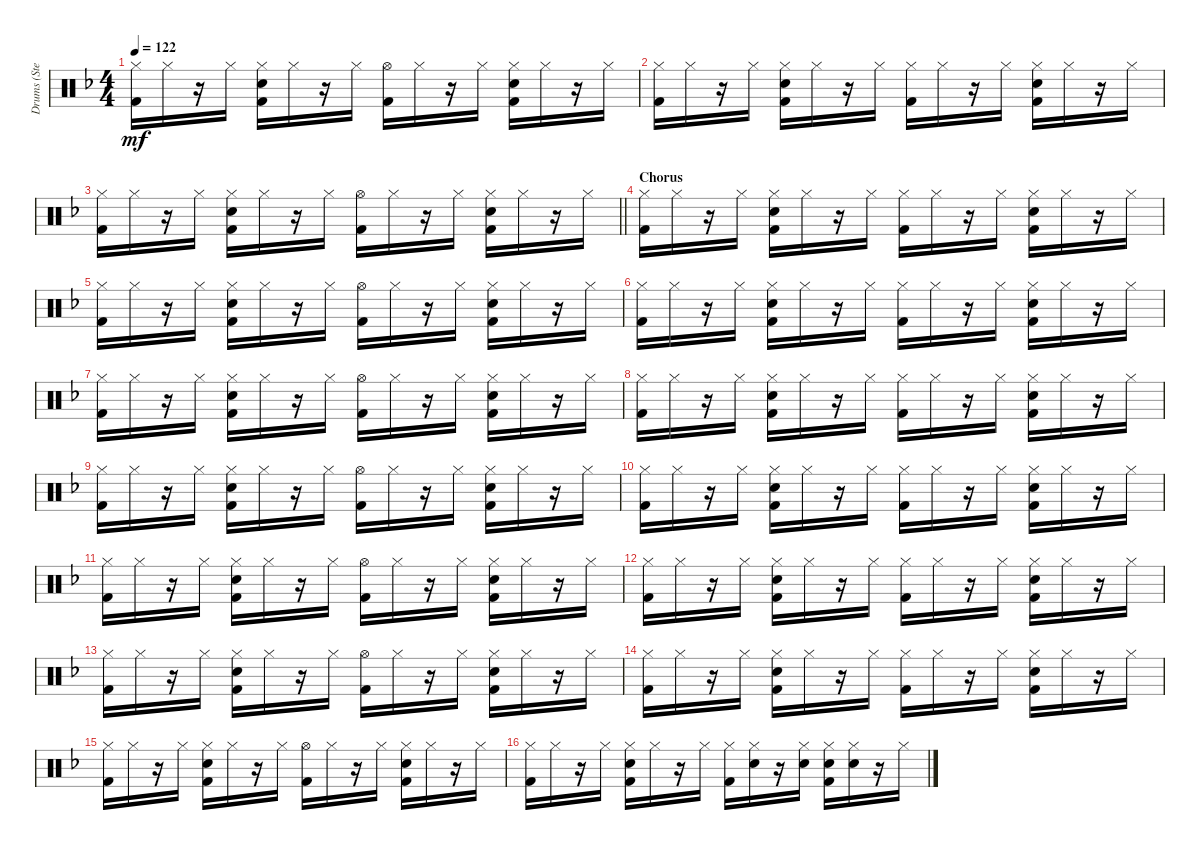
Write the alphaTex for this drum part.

\track ("Drums (Stephen Morris)" "Drums (Ste") {instrument percussion}
\staff {score}
\articulation defaults
\ts (4 4)
\tempo 122
\clef neutral
\ks f
("Hi-Hat (closed)" "Kick (hit) 2").16{dy mf} "Hi-Hat (closed)".16 r.16 "Hi-Hat (closed)".16 ("Hi-Hat (closed)" "Snare (hit) 2" "Kick (hit) 2").16 "Hi-Hat (closed)".16 r.16 "Hi-Hat (closed)".16 ("Kick (hit) 2" "Hi-Hat (open)").16 "Hi-Hat (closed)".16 r.16 "Hi-Hat (closed)".16 ("Hi-Hat (closed)" "Kick (hit) 2" "Snare (hit) 2").16 "Hi-Hat (closed)".16 r.16 "Hi-Hat (closed)".16 |
("Kick (hit) 2" "Hi-Hat (closed)").16 "Hi-Hat (closed)".16 r.16 "Hi-Hat (closed)".16 ("Hi-Hat (closed)" "Snare (hit) 2" "Kick (hit) 2").16 "Hi-Hat (closed)".16 r.16 "Hi-Hat (closed)".16 ("Kick (hit) 2" "Hi-Hat (closed)").16 "Hi-Hat (closed)".16 r.16 "Hi-Hat (closed)".16 ("Snare (hit) 2" "Kick (hit) 2" "Hi-Hat (closed)").16 "Hi-Hat (closed)".16 r.16 "Hi-Hat (closed)".16 |
\barLineRight lightlight
("Kick (hit) 2" "Hi-Hat (closed)").16 "Hi-Hat (closed)".16 r.16 "Hi-Hat (closed)".16 ("Hi-Hat (closed)" "Snare (hit) 2" "Kick (hit) 2").16 "Hi-Hat (closed)".16 r.16 "Hi-Hat (closed)".16 ("Kick (hit) 2" "Hi-Hat (open)").16 "Hi-Hat (closed)".16 r.16 "Hi-Hat (closed)".16 ("Hi-Hat (closed)" "Snare (hit) 2" "Kick (hit) 2").16 "Hi-Hat (closed)".16 r.16 "Hi-Hat (closed)".16 |
\section ("" "Chorus")
("Kick (hit) 2" "Hi-Hat (closed)").16 "Hi-Hat (closed)".16 r.16 "Hi-Hat (closed)".16 ("Hi-Hat (closed)" "Kick (hit) 2" "Snare (hit) 2").16 "Hi-Hat (closed)".16 r.16 "Hi-Hat (closed)".16 ("Kick (hit) 2" "Hi-Hat (closed)").16 "Hi-Hat (closed)".16 r.16 "Hi-Hat (closed)".16 ("Hi-Hat (closed)" "Snare (hit) 2" "Kick (hit) 2").16 "Hi-Hat (closed)".16 r.16 "Hi-Hat (closed)".16 |
("Hi-Hat (closed)" "Kick (hit) 2").16 "Hi-Hat (closed)".16 r.16 "Hi-Hat (closed)".16 ("Hi-Hat (closed)" "Kick (hit) 2" "Snare (hit) 2").16 "Hi-Hat (closed)".16 r.16 "Hi-Hat (closed)".16 ("Kick (hit) 2" "Hi-Hat (open)").16 "Hi-Hat (closed)".16 r.16 "Hi-Hat (closed)".16 ("Hi-Hat (closed)" "Snare (hit) 2" "Kick (hit) 2").16 "Hi-Hat (closed)".16 r.16 "Hi-Hat (closed)".16 |
("Kick (hit) 2" "Hi-Hat (closed)").16 "Hi-Hat (closed)".16 r.16 "Hi-Hat (closed)".16 ("Hi-Hat (closed)" "Snare (hit) 2" "Kick (hit) 2").16 "Hi-Hat (closed)".16 r.16 "Hi-Hat (closed)".16 ("Kick (hit) 2" "Hi-Hat (closed)").16 "Hi-Hat (closed)".16 r.16 "Hi-Hat (closed)".16 ("Kick (hit) 2" "Snare (hit) 2" "Hi-Hat (closed)").16 "Hi-Hat (closed)".16 r.16 "Hi-Hat (closed)".16 |
("Kick (hit) 2" "Hi-Hat (closed)").16 "Hi-Hat (closed)".16 r.16 "Hi-Hat (closed)".16 ("Hi-Hat (closed)" "Snare (hit) 2" "Kick (hit) 2").16 "Hi-Hat (closed)".16 r.16 "Hi-Hat (closed)".16 ("Kick (hit) 2" "Hi-Hat (open)").16 "Hi-Hat (closed)".16 r.16 "Hi-Hat (closed)".16 ("Kick (hit) 2" "Snare (hit) 2" "Hi-Hat (closed)").16 "Hi-Hat (closed)".16 r.16 "Hi-Hat (closed)".16 |
("Kick (hit) 2" "Hi-Hat (closed)").16 "Hi-Hat (closed)".16 r.16 "Hi-Hat (closed)".16 ("Hi-Hat (closed)" "Kick (hit) 2" "Snare (hit) 2").16 "Hi-Hat (closed)".16 r.16 "Hi-Hat (closed)".16 ("Hi-Hat (closed)" "Kick (hit) 2").16 "Hi-Hat (closed)".16 r.16 "Hi-Hat (closed)".16 ("Hi-Hat (closed)" "Snare (hit) 2" "Kick (hit) 2").16 "Hi-Hat (closed)".16 r.16 "Hi-Hat (closed)".16 |
("Kick (hit) 2" "Hi-Hat (closed)").16 "Hi-Hat (closed)".16 r.16 "Hi-Hat (closed)".16 ("Kick (hit) 2" "Snare (hit) 2" "Hi-Hat (closed)").16 "Hi-Hat (closed)".16 r.16 "Hi-Hat (closed)".16 ("Hi-Hat (open)" "Kick (hit) 2").16 "Hi-Hat (closed)".16 r.16 "Hi-Hat (closed)".16 ("Hi-Hat (closed)" "Snare (hit) 2" "Kick (hit) 2").16 "Hi-Hat (closed)".16 r.16 "Hi-Hat (closed)".16 |
("Kick (hit) 2" "Hi-Hat (closed)").16 "Hi-Hat (closed)".16 r.16 "Hi-Hat (closed)".16 ("Hi-Hat (closed)" "Snare (hit) 2" "Kick (hit) 2").16 "Hi-Hat (closed)".16 r.16 "Hi-Hat (closed)".16 ("Hi-Hat (closed)" "Kick (hit) 2").16 "Hi-Hat (closed)".16 r.16 "Hi-Hat (closed)".16 ("Hi-Hat (closed)" "Snare (hit) 2" "Kick (hit) 2").16 "Hi-Hat (closed)".16 r.16 "Hi-Hat (closed)".16 |
("Kick (hit) 2" "Hi-Hat (closed)").16 "Hi-Hat (closed)".16 r.16 "Hi-Hat (closed)".16 ("Hi-Hat (closed)" "Snare (hit) 2" "Kick (hit) 2").16 "Hi-Hat (closed)".16 r.16 "Hi-Hat (closed)".16 ("Kick (hit) 2" "Hi-Hat (open)").16 "Hi-Hat (closed)".16 r.16 "Hi-Hat (closed)".16 ("Hi-Hat (closed)" "Snare (hit) 2" "Kick (hit) 2").16 "Hi-Hat (closed)".16 r.16 "Hi-Hat (closed)".16 |
("Kick (hit) 2" "Hi-Hat (closed)").16 "Hi-Hat (closed)".16 r.16 "Hi-Hat (closed)".16 ("Kick (hit) 2" "Snare (hit) 2" "Hi-Hat (closed)").16 "Hi-Hat (closed)".16 r.16 "Hi-Hat (closed)".16 ("Kick (hit) 2" "Hi-Hat (closed)").16 "Hi-Hat (closed)".16 r.16 "Hi-Hat (closed)".16 ("Hi-Hat (closed)" "Snare (hit) 2" "Kick (hit) 2").16 "Hi-Hat (closed)".16 r.16 "Hi-Hat (closed)".16 |
("Kick (hit) 2" "Hi-Hat (closed)").16 "Hi-Hat (closed)".16 r.16 "Hi-Hat (closed)".16 ("Kick (hit) 2" "Snare (hit) 2" "Hi-Hat (closed)").16 "Hi-Hat (closed)".16 r.16 "Hi-Hat (closed)".16 ("Kick (hit) 2" "Hi-Hat (open)").16 "Hi-Hat (closed)".16 r.16 "Hi-Hat (closed)".16 ("Hi-Hat (closed)" "Snare (hit) 2" "Kick (hit) 2").16 "Hi-Hat (closed)".16 r.16 "Hi-Hat (closed)".16 |
("Hi-Hat (closed)" "Kick (hit) 2").16 "Hi-Hat (closed)".16 r.16 "Hi-Hat (closed)".16 ("Hi-Hat (closed)" "Snare (hit) 2" "Kick (hit) 2").16 "Hi-Hat (closed)".16 r.16 "Hi-Hat (closed)".16 ("Kick (hit) 2" "Hi-Hat (closed)").16 "Hi-Hat (closed)".16 r.16 "Hi-Hat (closed)".16 ("Kick (hit) 2" "Snare (hit) 2" "Hi-Hat (closed)").16 "Hi-Hat (closed)".16 r.16 "Hi-Hat (closed)".16 |
("Hi-Hat (closed)" "Kick (hit) 2").16 "Hi-Hat (closed)".16 r.16 "Hi-Hat (closed)".16 ("Hi-Hat (closed)" "Snare (hit) 2" "Kick (hit) 2").16 "Hi-Hat (closed)".16 r.16 "Hi-Hat (closed)".16 ("Kick (hit) 2" "Hi-Hat (open)").16 "Hi-Hat (closed)".16 r.16 "Hi-Hat (closed)".16 ("Kick (hit) 2" "Snare (hit) 2" "Hi-Hat (closed)").16 "Hi-Hat (closed)".16 r.16 "Hi-Hat (closed)".16 |
("Kick (hit) 2" "Hi-Hat (closed)").16 "Hi-Hat (closed)".16 r.16 "Hi-Hat (closed)".16 ("Hi-Hat (closed)" "Snare (hit) 2" "Kick (hit) 2").16 "Hi-Hat (closed)".16 r.16 "Hi-Hat (closed)".16 ("Kick (hit) 2" "Hi-Hat (closed)").16 ("Snare (hit) 2" "Hi-Hat (closed)").16 r.16 ("Snare (hit) 2" "Hi-Hat (closed)").16 ("Hi-Hat (closed)" "Snare (hit) 2" "Kick (hit) 2").16 ("Snare (hit) 2" "Hi-Hat (closed)").16 r.16 "Hi-Hat (closed)".16
